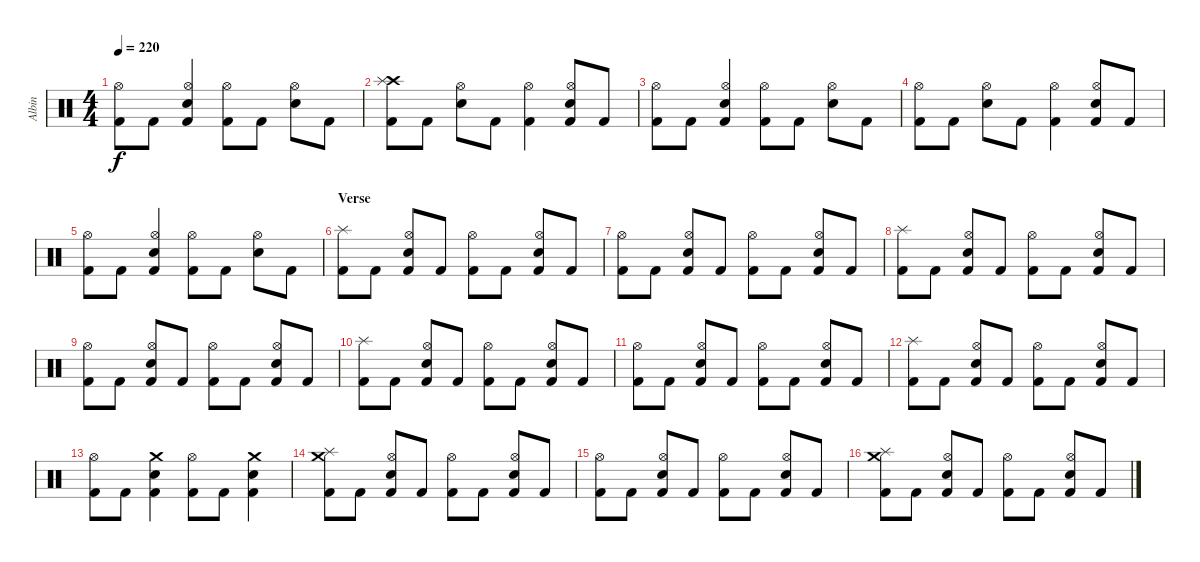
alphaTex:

\track ("Albin" "Albin") {instrument percussion}
\staff {score}
\articulation defaults
\ts (4 4)
\tempo 220
\clef neutral
\ks c
("Kick (hit) 2" "Hi-Hat (open)").8{dy f} "Kick (hit) 2".8 ("Kick (hit) 2" "Electric Snare (hit)" "Hi-Hat (open)").4 ("Kick (hit) 2" "Hi-Hat (open)").8 "Kick (hit) 2".8 ("Electric Snare (hit)" "Hi-Hat (open)").8 "Kick (hit) 2".8 |
("Kick (hit) 2" "Crash high (hit)" "Splash (hit)").8 "Kick (hit) 2".8 ("Electric Snare (hit)" "Hi-Hat (open)").8 "Kick (hit) 2".8 ("Kick (hit) 2" "Hi-Hat (open)").4 ("Kick (hit) 2" "Electric Snare (hit)" "Hi-Hat (open)").8 "Kick (hit) 2".8 |
("Kick (hit) 2" "Hi-Hat (open)").8 "Kick (hit) 2".8 ("Kick (hit) 2" "Electric Snare (hit)" "Hi-Hat (open)").4 ("Kick (hit) 2" "Hi-Hat (open)").8 "Kick (hit) 2".8 ("Electric Snare (hit)" "Hi-Hat (open)").8 "Kick (hit) 2".8 |
("Kick (hit) 2" "Hi-Hat (open)").8 "Kick (hit) 2".8 ("Electric Snare (hit)" "Hi-Hat (open)").8 "Kick (hit) 2".8 ("Kick (hit) 2" "Hi-Hat (open)").4 ("Kick (hit) 2" "Electric Snare (hit)" "Hi-Hat (open)").8 "Kick (hit) 2".8 |
("Kick (hit) 2" "Hi-Hat (open)").8 "Kick (hit) 2".8 ("Kick (hit) 2" "Electric Snare (hit)" "Hi-Hat (open)").4 ("Kick (hit) 2" "Hi-Hat (open)").8 "Kick (hit) 2".8 ("Electric Snare (hit)" "Hi-Hat (open)").8 "Kick (hit) 2".8 |
\section ("" "Verse")
("Kick (hit) 2" "Splash (hit)").8 "Kick (hit) 2".8 ("Kick (hit) 2" "Electric Snare (hit)" "Hi-Hat (open)").8 "Kick (hit) 2".8 ("Kick (hit) 2" "Hi-Hat (open)").8 "Kick (hit) 2".8 ("Kick (hit) 2" "Electric Snare (hit)" "Hi-Hat (open)").8 "Kick (hit) 2".8 |
("Kick (hit) 2" "Hi-Hat (open)").8 "Kick (hit) 2".8 ("Kick (hit) 2" "Electric Snare (hit)" "Hi-Hat (open)").8 "Kick (hit) 2".8 ("Kick (hit) 2" "Hi-Hat (open)").8 "Kick (hit) 2".8 ("Kick (hit) 2" "Electric Snare (hit)" "Hi-Hat (open)").8 "Kick (hit) 2".8 |
("Kick (hit) 2" "Splash (hit)").8 "Kick (hit) 2".8 ("Kick (hit) 2" "Electric Snare (hit)" "Hi-Hat (open)").8 "Kick (hit) 2".8 ("Kick (hit) 2" "Hi-Hat (open)").8 "Kick (hit) 2".8 ("Kick (hit) 2" "Electric Snare (hit)" "Hi-Hat (open)").8 "Kick (hit) 2".8 |
("Kick (hit) 2" "Hi-Hat (open)").8 "Kick (hit) 2".8 ("Kick (hit) 2" "Electric Snare (hit)" "Hi-Hat (open)").8 "Kick (hit) 2".8 ("Kick (hit) 2" "Hi-Hat (open)").8 "Kick (hit) 2".8 ("Kick (hit) 2" "Electric Snare (hit)" "Hi-Hat (open)").8 "Kick (hit) 2".8 |
("Kick (hit) 2" "Splash (hit)").8 "Kick (hit) 2".8 ("Kick (hit) 2" "Electric Snare (hit)" "Hi-Hat (open)").8 "Kick (hit) 2".8 ("Kick (hit) 2" "Hi-Hat (open)").8 "Kick (hit) 2".8 ("Kick (hit) 2" "Electric Snare (hit)" "Hi-Hat (open)").8 "Kick (hit) 2".8 |
("Kick (hit) 2" "Hi-Hat (open)").8 "Kick (hit) 2".8 ("Kick (hit) 2" "Electric Snare (hit)" "Hi-Hat (open)").8 "Kick (hit) 2".8 ("Kick (hit) 2" "Hi-Hat (open)").8 "Kick (hit) 2".8 ("Kick (hit) 2" "Electric Snare (hit)" "Hi-Hat (open)").8 "Kick (hit) 2".8 |
("Kick (hit) 2" "Splash (hit)").8 "Kick (hit) 2".8 ("Kick (hit) 2" "Electric Snare (hit)" "Hi-Hat (open)").8 "Kick (hit) 2".8 ("Kick (hit) 2" "Hi-Hat (open)").8 "Kick (hit) 2".8 ("Kick (hit) 2" "Electric Snare (hit)" "Hi-Hat (open)").8 "Kick (hit) 2".8 |
("Kick (hit) 2" "Hi-Hat (open)").8 "Kick (hit) 2".8 ("Kick (hit) 2" "Electric Snare (hit)" "Crash medium (hit)").4 ("Kick (hit) 2" "Hi-Hat (open)").8 "Kick (hit) 2".8 ("Kick (hit) 2" "Electric Snare (hit)" "Crash medium (hit)").4 |
("Kick (hit) 2" "Splash (hit)" "Crash medium (hit)").8 "Kick (hit) 2".8 ("Kick (hit) 2" "Electric Snare (hit)" "Hi-Hat (open)").8 "Kick (hit) 2".8 ("Kick (hit) 2" "Hi-Hat (open)").8 "Kick (hit) 2".8 ("Kick (hit) 2" "Electric Snare (hit)" "Hi-Hat (open)").8 "Kick (hit) 2".8 |
("Kick (hit) 2" "Hi-Hat (open)").8 "Kick (hit) 2".8 ("Kick (hit) 2" "Electric Snare (hit)" "Hi-Hat (open)").8 "Kick (hit) 2".8 ("Kick (hit) 2" "Hi-Hat (open)").8 "Kick (hit) 2".8 ("Kick (hit) 2" "Electric Snare (hit)" "Hi-Hat (open)").8 "Kick (hit) 2".8 |
("Kick (hit) 2" "Splash (hit)" "Crash medium (hit)").8 "Kick (hit) 2".8 ("Kick (hit) 2" "Electric Snare (hit)" "Hi-Hat (open)").8 "Kick (hit) 2".8 ("Kick (hit) 2" "Hi-Hat (open)").8 "Kick (hit) 2".8 ("Kick (hit) 2" "Electric Snare (hit)" "Hi-Hat (open)").8 "Kick (hit) 2".8
